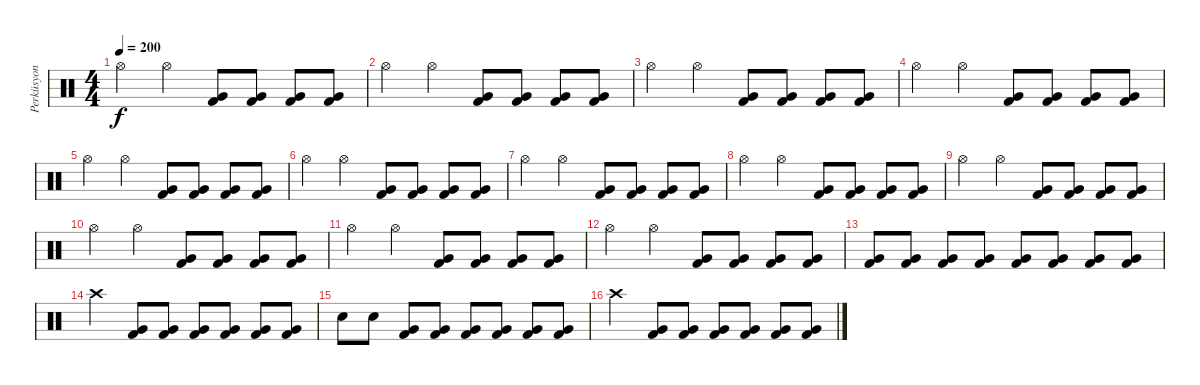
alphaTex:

\track ("Perküsyon" "Perküsyon") {instrument percussion}
\staff {score}
\articulation defaults
\ts (4 4)
\tempo 200
\clef neutral
\ks c "Hi-Hat (open)".4{dy f} "Hi-Hat (open)".4
("Very Low Tom (hit)" "Kick (hit) 2").8 ("Very Low Tom (hit)" "Kick (hit) 2").8 ("Very Low Tom (hit)" "Kick (hit) 2").8 ("Very Low Tom (hit)" "Kick (hit) 2").8 |
"Hi-Hat (open)".4 "Hi-Hat (open)".4 ("Very Low Tom (hit)" "Kick (hit) 2").8 ("Very Low Tom (hit)" "Kick (hit) 2").8 ("Very Low Tom (hit)" "Kick (hit) 2").8 ("Very Low Tom (hit)" "Kick (hit) 2").8 |
"Hi-Hat (open)".4 "Hi-Hat (open)".4 ("Very Low Tom (hit)" "Kick (hit) 2").8 ("Very Low Tom (hit)" "Kick (hit) 2").8 ("Very Low Tom (hit)" "Kick (hit) 2").8 ("Very Low Tom (hit)" "Kick (hit) 2").8 |
"Hi-Hat (open)".4 "Hi-Hat (open)".4 ("Very Low Tom (hit)" "Kick (hit) 2").8 ("Very Low Tom (hit)" "Kick (hit) 2").8 ("Very Low Tom (hit)" "Kick (hit) 2").8 ("Very Low Tom (hit)" "Kick (hit) 2").8 |
"Hi-Hat (open)".4 "Hi-Hat (open)".4 ("Very Low Tom (hit)" "Kick (hit) 2").8 ("Very Low Tom (hit)" "Kick (hit) 2").8 ("Very Low Tom (hit)" "Kick (hit) 2").8 ("Very Low Tom (hit)" "Kick (hit) 2").8 |
"Hi-Hat (open)".4 "Hi-Hat (open)".4 ("Very Low Tom (hit)" "Kick (hit) 2").8 ("Very Low Tom (hit)" "Kick (hit) 2").8 ("Very Low Tom (hit)" "Kick (hit) 2").8 ("Very Low Tom (hit)" "Kick (hit) 2").8 |
"Hi-Hat (open)".4 "Hi-Hat (open)".4 ("Very Low Tom (hit)" "Kick (hit) 2").8 ("Very Low Tom (hit)" "Kick (hit) 2").8 ("Very Low Tom (hit)" "Kick (hit) 2").8 ("Very Low Tom (hit)" "Kick (hit) 2").8 |
"Hi-Hat (open)".4 "Hi-Hat (open)".4 ("Very Low Tom (hit)" "Kick (hit) 2").8 ("Very Low Tom (hit)" "Kick (hit) 2").8 ("Very Low Tom (hit)" "Kick (hit) 2").8 ("Very Low Tom (hit)" "Kick (hit) 2").8 |
"Hi-Hat (open)".4 "Hi-Hat (open)".4 ("Very Low Tom (hit)" "Kick (hit) 2").8 ("Very Low Tom (hit)" "Kick (hit) 2").8 ("Very Low Tom (hit)" "Kick (hit) 2").8 ("Very Low Tom (hit)" "Kick (hit) 2").8 |
"Hi-Hat (open)".4 "Hi-Hat (open)".4 ("Very Low Tom (hit)" "Kick (hit) 2").8 ("Very Low Tom (hit)" "Kick (hit) 2").8 ("Very Low Tom (hit)" "Kick (hit) 2").8 ("Very Low Tom (hit)" "Kick (hit) 2").8 |
"Hi-Hat (open)".4 "Hi-Hat (open)".4 ("Very Low Tom (hit)" "Kick (hit) 2").8 ("Very Low Tom (hit)" "Kick (hit) 2").8 ("Very Low Tom (hit)" "Kick (hit) 2").8 ("Very Low Tom (hit)" "Kick (hit) 2").8 |
"Hi-Hat (open)".4 "Hi-Hat (open)".4 ("Very Low Tom (hit)" "Kick (hit) 2").8 ("Very Low Tom (hit)" "Kick (hit) 2").8 ("Very Low Tom (hit)" "Kick (hit) 2").8 ("Very Low Tom (hit)" "Kick (hit) 2").8 |
("Very Low Tom (hit)" "Kick (hit) 2").8 ("Very Low Tom (hit)" "Kick (hit) 2").8 ("Very Low Tom (hit)" "Kick (hit) 2").8 ("Very Low Tom (hit)" "Kick (hit) 2").8 ("Very Low Tom (hit)" "Kick (hit) 2").8 ("Very Low Tom (hit)" "Kick (hit) 2").8 ("Very Low Tom (hit)" "Kick (hit) 2").8 ("Very Low Tom (hit)" "Kick (hit) 2").8 |
"Crash high (hit)".4 ("Very Low Tom (hit)" "Kick (hit) 2").8 ("Very Low Tom (hit)" "Kick (hit) 2").8 ("Very Low Tom (hit)" "Kick (hit) 2").8 ("Very Low Tom (hit)" "Kick (hit) 2").8 ("Very Low Tom (hit)" "Kick (hit) 2").8 ("Very Low Tom (hit)" "Kick (hit) 2").8 |
"Snare (hit) 2".8 "Electric Snare (hit)".8 ("Very Low Tom (hit)" "Kick (hit) 2").8 ("Very Low Tom (hit)" "Kick (hit) 2").8 ("Very Low Tom (hit)" "Kick (hit) 2").8 ("Very Low Tom (hit)" "Kick (hit) 2").8 ("Very Low Tom (hit)" "Kick (hit) 2").8 ("Very Low Tom (hit)" "Kick (hit) 2").8 |
"Crash high (hit)".4 ("Very Low Tom (hit)" "Kick (hit) 2").8 ("Very Low Tom (hit)" "Kick (hit) 2").8 ("Very Low Tom (hit)" "Kick (hit) 2").8 ("Very Low Tom (hit)" "Kick (hit) 2").8 ("Very Low Tom (hit)" "Kick (hit) 2").8 ("Very Low Tom (hit)" "Kick (hit) 2").8
